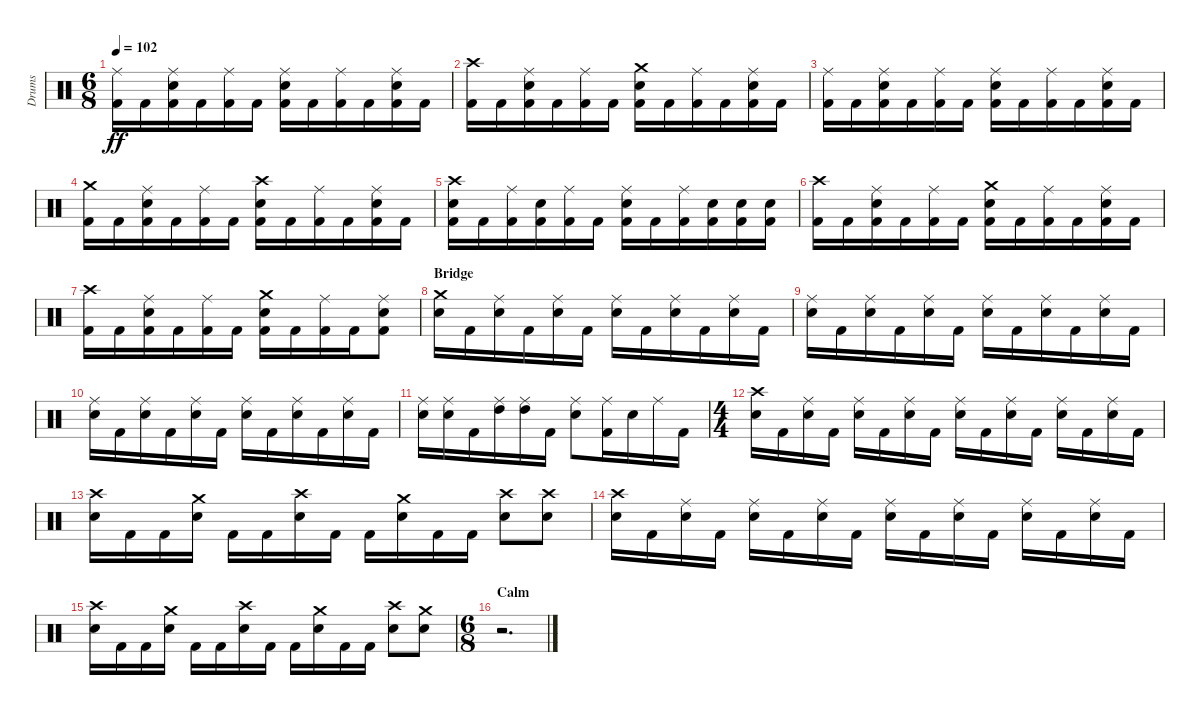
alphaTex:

\track ("Drums" "Drums") {instrument percussion}
\staff {score}
\articulation defaults
\ts (6 8)
\tempo 102
\clef neutral
\ks c
("Ride (middle)" "Kick (hit) 2").16{dy ff} "Kick (hit) 2".16 ("Ride (middle)" "Electric Snare (hit)" "Kick (hit) 2").16 "Kick (hit) 2".16 ("Ride (middle)" "Kick (hit) 2").16 "Kick (hit) 2".16 ("Ride (middle)" "Electric Snare (hit)" "Kick (hit) 2").16 "Kick (hit) 2".16 ("Ride (middle)" "Kick (hit) 2").16 "Kick (hit) 2".16 ("Ride (middle)" "Electric Snare (hit)" "Kick (hit) 2").16 "Kick (hit) 2".16 |
("Crash high (hit)" "Kick (hit) 2").16 "Kick (hit) 2".16 ("Ride (middle)" "Electric Snare (hit)" "Kick (hit) 2").16 "Kick (hit) 2".16 ("Ride (middle)" "Kick (hit) 2").16 "Kick (hit) 2".16 ("Crash medium (hit)" "Electric Snare (hit)" "Kick (hit) 2").16 "Kick (hit) 2".16 ("Ride (middle)" "Kick (hit) 2").16 "Kick (hit) 2".16 ("Ride (middle)" "Electric Snare (hit)" "Kick (hit) 2").16 "Kick (hit) 2".16 |
("Ride (middle)" "Kick (hit) 2").16 "Kick (hit) 2".16 ("Ride (middle)" "Electric Snare (hit)" "Kick (hit) 2").16 "Kick (hit) 2".16 ("Ride (middle)" "Kick (hit) 2").16 "Kick (hit) 2".16 ("Ride (middle)" "Electric Snare (hit)" "Kick (hit) 2").16 "Kick (hit) 2".16 ("Ride (middle)" "Kick (hit) 2").16 "Kick (hit) 2".16 ("Ride (middle)" "Electric Snare (hit)" "Kick (hit) 2").16 "Kick (hit) 2".16 |
("Crash medium (hit)" "Kick (hit) 2").16 "Kick (hit) 2".16 ("Ride (middle)" "Electric Snare (hit)" "Kick (hit) 2").16 "Kick (hit) 2".16 ("Ride (middle)" "Kick (hit) 2").16 "Kick (hit) 2".16 ("Crash high (hit)" "Electric Snare (hit)" "Kick (hit) 2").16 "Kick (hit) 2".16 ("Ride (middle)" "Kick (hit) 2").16 "Kick (hit) 2".16 ("Ride (middle)" "Electric Snare (hit)" "Kick (hit) 2").16 "Kick (hit) 2".16 |
("Crash high (hit)" "Electric Snare (hit)" "Kick (hit) 2").16 "Kick (hit) 2".16 ("Ride (middle)" "Kick (hit) 2").16 ("Electric Snare (hit)" "Kick (hit) 2").16 ("Ride (middle)" "Kick (hit) 2").16 "Kick (hit) 2".16 ("Ride (middle)" "Electric Snare (hit)" "Kick (hit) 2").16 "Kick (hit) 2".16 ("Ride (middle)" "Kick (hit) 2").16 ("Electric Snare (hit)" "Kick (hit) 2").16 ("Electric Snare (hit)" "Kick (hit) 2").16 ("Electric Snare (hit)" "Kick (hit) 2").16 |
("Crash high (hit)" "Kick (hit) 2").16 "Kick (hit) 2".16 ("Ride (middle)" "Electric Snare (hit)" "Kick (hit) 2").16 "Kick (hit) 2".16 ("Ride (middle)" "Kick (hit) 2").16 "Kick (hit) 2".16 ("Crash medium (hit)" "Electric Snare (hit)" "Kick (hit) 2").16 "Kick (hit) 2".16 ("Ride (middle)" "Kick (hit) 2").16 "Kick (hit) 2".16 ("Ride (middle)" "Electric Snare (hit)" "Kick (hit) 2").16 "Kick (hit) 2".16 |
("Crash high (hit)" "Kick (hit) 2").16 "Kick (hit) 2".16 ("Ride (middle)" "Electric Snare (hit)" "Kick (hit) 2").16 "Kick (hit) 2".16 ("Ride (middle)" "Kick (hit) 2").16 "Kick (hit) 2".16 ("Crash medium (hit)" "Electric Snare (hit)" "Kick (hit) 2").16 "Kick (hit) 2".16 ("Ride (middle)" "Kick (hit) 2").16 "Kick (hit) 2".16 ("Ride (middle)" "Electric Snare (hit)" "Kick (hit) 2").8 |
\section ("" "Bridge")
("Crash medium (hit)" "Electric Snare (hit)").16 "Kick (hit) 2".16 ("Ride (middle)" "Electric Snare (hit)").16 "Kick (hit) 2".16 ("Ride (middle)" "Electric Snare (hit)").16 "Kick (hit) 2".16 ("Ride (middle)" "Electric Snare (hit)").16 "Kick (hit) 2".16 ("Ride (middle)" "Electric Snare (hit)").16 "Kick (hit) 2".16 ("Ride (middle)" "Electric Snare (hit)").16 "Kick (hit) 2".16 |
("Ride (middle)" "Electric Snare (hit)").16 "Kick (hit) 2".16 ("Ride (middle)" "Electric Snare (hit)").16 "Kick (hit) 2".16 ("Ride (middle)" "Electric Snare (hit)").16 "Kick (hit) 2".16 ("Ride (middle)" "Electric Snare (hit)").16 "Kick (hit) 2".16 ("Ride (middle)" "Electric Snare (hit)").16 "Kick (hit) 2".16 ("Ride (middle)" "Electric Snare (hit)").16 "Kick (hit) 2".16 |
("Ride (middle)" "Electric Snare (hit)").16 "Kick (hit) 2".16 ("Ride (middle)" "Electric Snare (hit)").16 "Kick (hit) 2".16 ("Ride (middle)" "Electric Snare (hit)").16 "Kick (hit) 2".16 ("Ride (middle)" "Electric Snare (hit)").16 "Kick (hit) 2".16 ("Ride (middle)" "Electric Snare (hit)").16 "Kick (hit) 2".16 ("Ride (middle)" "Electric Snare (hit)").16 "Kick (hit) 2".16 |
("Ride (middle)" "Electric Snare (hit)").16 ("Ride (middle)" "Electric Snare (hit)").16 "Kick (hit) 2".16 ("Ride (middle)" "High Tom (hit)").16 ("Ride (middle)" "High Tom (hit)").16 "Kick (hit) 2".16 ("Ride (middle)" "Electric Snare (hit)").8 ("Ride (middle)" "Kick (hit) 2").16 "Electric Snare (hit)".16 "Ride (middle)".16 "Kick (hit) 2".16 |
\ts (4 4)
("Crash high (hit)" "Electric Snare (hit)").16 "Kick (hit) 2".16 ("Ride (middle)" "Electric Snare (hit)").16 "Kick (hit) 2".16 ("Ride (middle)" "Electric Snare (hit)").16 "Kick (hit) 2".16 ("Ride (middle)" "Electric Snare (hit)").16 "Kick (hit) 2".16 ("Ride (middle)" "Electric Snare (hit)").16 "Kick (hit) 2".16 ("Ride (middle)" "Electric Snare (hit)").16 "Kick (hit) 2".16 ("Ride (middle)" "Electric Snare (hit)").16 "Kick (hit) 2".16 ("Ride (middle)" "Electric Snare (hit)").16 "Kick (hit) 2".16 |
("Crash high (hit)" "Electric Snare (hit)").16 "Kick (hit) 2".16 "Kick (hit) 2".16 ("Crash medium (hit)" "Electric Snare (hit)").16 "Kick (hit) 2".16 "Kick (hit) 2".16 ("Crash high (hit)" "Electric Snare (hit)").16 "Kick (hit) 2".16 "Kick (hit) 2".16 ("Crash medium (hit)" "Electric Snare (hit)").16 "Kick (hit) 2".16 "Kick (hit) 2".16 ("Crash high (hit)" "Electric Snare (hit)").8 ("Crash high (hit)" "Electric Snare (hit)").8 |
("Crash high (hit)" "Electric Snare (hit)").16 "Kick (hit) 2".16 ("Ride (middle)" "Electric Snare (hit)").16 "Kick (hit) 2".16 ("Ride (middle)" "Electric Snare (hit)").16 "Kick (hit) 2".16 ("Ride (middle)" "Electric Snare (hit)").16 "Kick (hit) 2".16 ("Ride (middle)" "Electric Snare (hit)").16 "Kick (hit) 2".16 ("Ride (middle)" "Electric Snare (hit)").16 "Kick (hit) 2".16 ("Ride (middle)" "Electric Snare (hit)").16 "Kick (hit) 2".16 ("Ride (middle)" "Electric Snare (hit)").16 "Kick (hit) 2".16 |
("Crash high (hit)" "Electric Snare (hit)").16 "Kick (hit) 2".16 "Kick (hit) 2".16 ("Crash medium (hit)" "Electric Snare (hit)").16 "Kick (hit) 2".16 "Kick (hit) 2".16 ("Crash high (hit)" "Electric Snare (hit)").16 "Kick (hit) 2".16 "Kick (hit) 2".16 ("Crash medium (hit)" "Electric Snare (hit)").16 "Kick (hit) 2".16 "Kick (hit) 2".16 ("Crash high (hit)" "Electric Snare (hit)").8 ("Crash medium (hit)" "Electric Snare (hit)").8 |
\ts (6 8)
\section ("" "Calm")
r.2{d}
